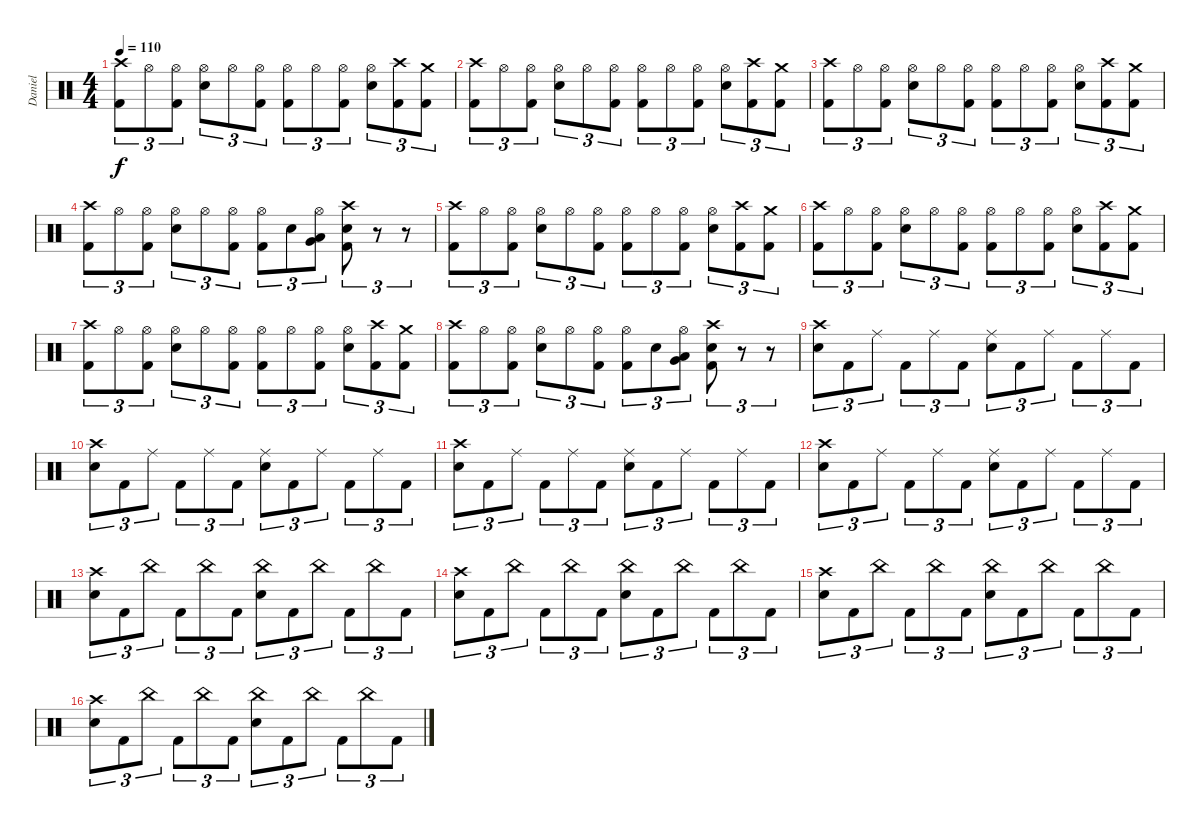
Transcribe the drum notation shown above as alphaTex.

\track ("Daniel" "Daniel") {instrument percussion}
\staff {score}
\articulation defaults
\ts (4 4)
\tempo 110
\clef neutral
\ks c
("Crash high (hit)" "Kick (hit) 2").8{tu (3 2) dy f} "Hi-Hat (open)".8{tu (3 2)} ("Hi-Hat (open)" "Kick (hit) 2").8{tu (3 2)} ("Hi-Hat (open)" "Electric Snare (hit)").8{tu (3 2)} "Hi-Hat (open)".8{tu (3 2)} ("Hi-Hat (open)" "Kick (hit) 2").8{tu (3 2)} ("Hi-Hat (open)" "Kick (hit) 2").8{tu (3 2)} "Hi-Hat (open)".8{tu (3 2)} ("Hi-Hat (open)" "Kick (hit) 2").8{tu (3 2)} ("Hi-Hat (open)" "Electric Snare (hit)").8{tu (3 2)} ("Crash high (hit)" "Kick (hit) 2").8{tu (3 2)} ("Crash medium (hit)" "Kick (hit) 2").8{tu (3 2)} |
("Crash high (hit)" "Kick (hit) 2").8{tu (3 2)} "Hi-Hat (open)".8{tu (3 2)} ("Hi-Hat (open)" "Kick (hit) 2").8{tu (3 2)} ("Hi-Hat (open)" "Electric Snare (hit)").8{tu (3 2)} "Hi-Hat (open)".8{tu (3 2)} ("Hi-Hat (open)" "Kick (hit) 2").8{tu (3 2)} ("Hi-Hat (open)" "Kick (hit) 2").8{tu (3 2)} "Hi-Hat (open)".8{tu (3 2)} ("Hi-Hat (open)" "Kick (hit) 2").8{tu (3 2)} ("Hi-Hat (open)" "Electric Snare (hit)").8{tu (3 2)} ("Crash high (hit)" "Kick (hit) 2").8{tu (3 2)} ("Crash medium (hit)" "Kick (hit) 2").8{tu (3 2)} |
("Crash high (hit)" "Kick (hit) 2").8{tu (3 2)} "Hi-Hat (open)".8{tu (3 2)} ("Hi-Hat (open)" "Kick (hit) 2").8{tu (3 2)} ("Hi-Hat (open)" "Electric Snare (hit)").8{tu (3 2)} "Hi-Hat (open)".8{tu (3 2)} ("Hi-Hat (open)" "Kick (hit) 2").8{tu (3 2)} ("Hi-Hat (open)" "Kick (hit) 2").8{tu (3 2)} "Hi-Hat (open)".8{tu (3 2)} ("Hi-Hat (open)" "Kick (hit) 2").8{tu (3 2)} ("Hi-Hat (open)" "Electric Snare (hit)").8{tu (3 2)} ("Crash high (hit)" "Kick (hit) 2").8{tu (3 2)} ("Crash medium (hit)" "Kick (hit) 2").8{tu (3 2)} |
("Crash high (hit)" "Kick (hit) 2").8{tu (3 2)} "Hi-Hat (open)".8{tu (3 2)} ("Hi-Hat (open)" "Kick (hit) 2").8{tu (3 2)} ("Hi-Hat (open)" "Electric Snare (hit)").8{tu (3 2)} "Hi-Hat (open)".8{tu (3 2)} ("Hi-Hat (open)" "Kick (hit) 2").8{tu (3 2)} ("Hi-Hat (open)" "Kick (hit) 2").8{tu (3 2)} "Electric Snare (hit)".8{tu (3 2)} ("Hi-Hat (open)" "Low Tom (hit)" "Very Low Tom (hit)").8{tu (3 2)} ("Crash high (hit)" "Kick (hit) 2" "Electric Snare (hit)").8{tu (3 2)} r.8{tu (3 2)} r.8{tu (3 2)} |
("Crash high (hit)" "Kick (hit) 2").8{tu (3 2)} "Hi-Hat (open)".8{tu (3 2)} ("Hi-Hat (open)" "Kick (hit) 2").8{tu (3 2)} ("Hi-Hat (open)" "Electric Snare (hit)").8{tu (3 2)} "Hi-Hat (open)".8{tu (3 2)} ("Hi-Hat (open)" "Kick (hit) 2").8{tu (3 2)} ("Hi-Hat (open)" "Kick (hit) 2").8{tu (3 2)} "Hi-Hat (open)".8{tu (3 2)} ("Hi-Hat (open)" "Kick (hit) 2").8{tu (3 2)} ("Hi-Hat (open)" "Electric Snare (hit)").8{tu (3 2)} ("Crash high (hit)" "Kick (hit) 2").8{tu (3 2)} ("Crash medium (hit)" "Kick (hit) 2").8{tu (3 2)} |
("Crash high (hit)" "Kick (hit) 2").8{tu (3 2)} "Hi-Hat (open)".8{tu (3 2)} ("Hi-Hat (open)" "Kick (hit) 2").8{tu (3 2)} ("Hi-Hat (open)" "Electric Snare (hit)").8{tu (3 2)} "Hi-Hat (open)".8{tu (3 2)} ("Hi-Hat (open)" "Kick (hit) 2").8{tu (3 2)} ("Hi-Hat (open)" "Kick (hit) 2").8{tu (3 2)} "Hi-Hat (open)".8{tu (3 2)} ("Hi-Hat (open)" "Kick (hit) 2").8{tu (3 2)} ("Hi-Hat (open)" "Electric Snare (hit)").8{tu (3 2)} ("Crash high (hit)" "Kick (hit) 2").8{tu (3 2)} ("Crash medium (hit)" "Kick (hit) 2").8{tu (3 2)} |
("Crash high (hit)" "Kick (hit) 2").8{tu (3 2)} "Hi-Hat (open)".8{tu (3 2)} ("Hi-Hat (open)" "Kick (hit) 2").8{tu (3 2)} ("Hi-Hat (open)" "Electric Snare (hit)").8{tu (3 2)} "Hi-Hat (open)".8{tu (3 2)} ("Hi-Hat (open)" "Kick (hit) 2").8{tu (3 2)} ("Hi-Hat (open)" "Kick (hit) 2").8{tu (3 2)} "Hi-Hat (open)".8{tu (3 2)} ("Hi-Hat (open)" "Kick (hit) 2").8{tu (3 2)} ("Hi-Hat (open)" "Electric Snare (hit)").8{tu (3 2)} ("Crash high (hit)" "Kick (hit) 2").8{tu (3 2)} ("Crash medium (hit)" "Kick (hit) 2").8{tu (3 2)} |
("Crash high (hit)" "Kick (hit) 2").8{tu (3 2)} "Hi-Hat (open)".8{tu (3 2)} ("Hi-Hat (open)" "Kick (hit) 2").8{tu (3 2)} ("Hi-Hat (open)" "Electric Snare (hit)").8{tu (3 2)} "Hi-Hat (open)".8{tu (3 2)} ("Hi-Hat (open)" "Kick (hit) 2").8{tu (3 2)} ("Hi-Hat (open)" "Kick (hit) 2").8{tu (3 2)} "Electric Snare (hit)".8{tu (3 2)} ("Hi-Hat (open)" "Low Tom (hit)" "Very Low Tom (hit)").8{tu (3 2)} ("Crash high (hit)" "Kick (hit) 2" "Electric Snare (hit)").8{tu (3 2)} r.8{tu (3 2)} r.8{tu (3 2)} |
("Crash high (hit)" "Electric Snare (hit)").8{tu (3 2)} "Kick (hit) 2".8{tu (3 2)} "Ride (middle)".8{tu (3 2)} "Kick (hit) 2".8{tu (3 2)} "Ride (middle)".8{tu (3 2)} "Kick (hit) 2".8{tu (3 2)} ("Ride (middle)" "Electric Snare (hit)").8{tu (3 2)} "Kick (hit) 2".8{tu (3 2)} "Ride (middle)".8{tu (3 2)} "Kick (hit) 2".8{tu (3 2)} "Ride (middle)".8{tu (3 2)} "Kick (hit) 2".8{tu (3 2)} |
("Crash high (hit)" "Electric Snare (hit)").8{tu (3 2)} "Kick (hit) 2".8{tu (3 2)} "Ride (middle)".8{tu (3 2)} "Kick (hit) 2".8{tu (3 2)} "Ride (middle)".8{tu (3 2)} "Kick (hit) 2".8{tu (3 2)} ("Ride (middle)" "Electric Snare (hit)").8{tu (3 2)} "Kick (hit) 2".8{tu (3 2)} "Ride (middle)".8{tu (3 2)} "Kick (hit) 2".8{tu (3 2)} "Ride (middle)".8{tu (3 2)} "Kick (hit) 2".8{tu (3 2)} |
("Crash high (hit)" "Electric Snare (hit)").8{tu (3 2)} "Kick (hit) 2".8{tu (3 2)} "Ride (middle)".8{tu (3 2)} "Kick (hit) 2".8{tu (3 2)} "Ride (middle)".8{tu (3 2)} "Kick (hit) 2".8{tu (3 2)} ("Ride (middle)" "Electric Snare (hit)").8{tu (3 2)} "Kick (hit) 2".8{tu (3 2)} "Ride (middle)".8{tu (3 2)} "Kick (hit) 2".8{tu (3 2)} "Ride (middle)".8{tu (3 2)} "Kick (hit) 2".8{tu (3 2)} |
("Crash high (hit)" "Electric Snare (hit)").8{tu (3 2)} "Kick (hit) 2".8{tu (3 2)} "Ride (middle)".8{tu (3 2)} "Kick (hit) 2".8{tu (3 2)} "Ride (middle)".8{tu (3 2)} "Kick (hit) 2".8{tu (3 2)} ("Ride (middle)" "Electric Snare (hit)").8{tu (3 2)} "Kick (hit) 2".8{tu (3 2)} "Ride (middle)".8{tu (3 2)} "Kick (hit) 2".8{tu (3 2)} "Ride (middle)".8{tu (3 2)} "Kick (hit) 2".8{tu (3 2)} |
("Crash high (hit)" "Electric Snare (hit)").8{tu (3 2)} "Kick (hit) 2".8{tu (3 2)} "China (hit)".8{tu (3 2)} "Kick (hit) 2".8{tu (3 2)} "China (hit)".8{tu (3 2)} "Kick (hit) 2".8{tu (3 2)} ("China (hit)" "Electric Snare (hit)").8{tu (3 2)} "Kick (hit) 2".8{tu (3 2)} "China (hit)".8{tu (3 2)} "Kick (hit) 2".8{tu (3 2)} "China (hit)".8{tu (3 2)} "Kick (hit) 2".8{tu (3 2)} |
("Crash high (hit)" "Electric Snare (hit)").8{tu (3 2)} "Kick (hit) 2".8{tu (3 2)} "China (hit)".8{tu (3 2)} "Kick (hit) 2".8{tu (3 2)} "China (hit)".8{tu (3 2)} "Kick (hit) 2".8{tu (3 2)} ("China (hit)" "Electric Snare (hit)").8{tu (3 2)} "Kick (hit) 2".8{tu (3 2)} "China (hit)".8{tu (3 2)} "Kick (hit) 2".8{tu (3 2)} "China (hit)".8{tu (3 2)} "Kick (hit) 2".8{tu (3 2)} |
("Crash high (hit)" "Electric Snare (hit)").8{tu (3 2)} "Kick (hit) 2".8{tu (3 2)} "China (hit)".8{tu (3 2)} "Kick (hit) 2".8{tu (3 2)} "China (hit)".8{tu (3 2)} "Kick (hit) 2".8{tu (3 2)} ("China (hit)" "Electric Snare (hit)").8{tu (3 2)} "Kick (hit) 2".8{tu (3 2)} "China (hit)".8{tu (3 2)} "Kick (hit) 2".8{tu (3 2)} "China (hit)".8{tu (3 2)} "Kick (hit) 2".8{tu (3 2)} |
("Crash high (hit)" "Electric Snare (hit)").8{tu (3 2)} "Kick (hit) 2".8{tu (3 2)} "China (hit)".8{tu (3 2)} "Kick (hit) 2".8{tu (3 2)} "China (hit)".8{tu (3 2)} "Kick (hit) 2".8{tu (3 2)} ("China (hit)" "Electric Snare (hit)").8{tu (3 2)} "Kick (hit) 2".8{tu (3 2)} "China (hit)".8{tu (3 2)} "Kick (hit) 2".8{tu (3 2)} "China (hit)".8{tu (3 2)} "Kick (hit) 2".8{tu (3 2)}
